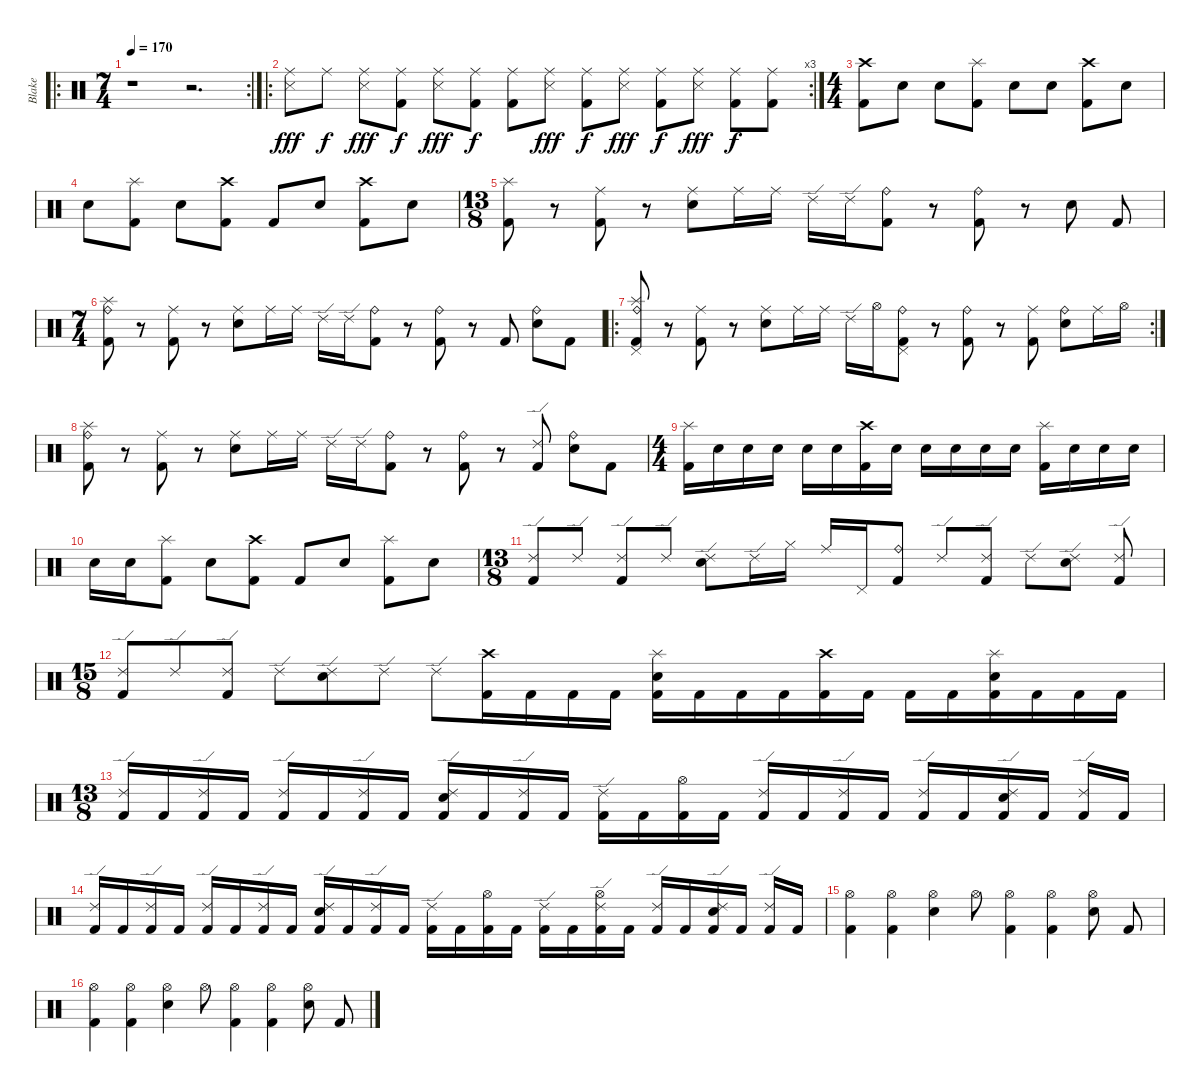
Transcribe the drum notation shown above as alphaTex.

\track ("Blake" "Blake") {instrument percussion}
\staff {score}
\articulation defaults
\ro
\rc 2
\ts (7 4)
\tempo 170
\clef neutral
\ks c
r.1{dy fff} r.2{d} |
\ro
\rc 3
("Ride (middle)" "Snare (side stick) 3").8 "Ride (middle)".8{dy f} ("Ride (middle)" "Snare (side stick) 3").8{dy fff} ("Ride (middle)" "Kick (hit) 2").8{dy f} ("Ride (middle)" "Snare (side stick) 3").8{dy fff} ("Ride (middle)" "Kick (hit) 2").8{dy f} ("Ride (middle)" "Kick (hit) 2").8 ("Ride (middle)" "Snare (side stick) 3").8{dy fff} ("Ride (middle)" "Kick (hit) 2").8{dy f} ("Ride (middle)" "Snare (side stick) 3").8{dy fff} ("Ride (middle)" "Kick (hit) 2").8{dy f} ("Ride (middle)" "Snare (side stick) 3").8{dy fff} ("Ride (middle)" "Kick (hit) 2").8{dy f} ("Ride (middle)" "Kick (hit) 2").8 |
\ts (4 4)
("Crash high (hit)" "Kick (hit) 2").8 "Snare (hit) 2".8 "Snare (hit) 2".8 ("Splash (hit)" "Kick (hit) 2").8 "Snare (hit) 2".8 "Snare (hit) 2".8 ("Crash high (hit)" "Kick (hit) 2").8 "Snare (hit) 2".8 |
"Snare (hit) 2".8 ("Splash (hit)" "Kick (hit) 2").8 "Snare (hit) 2".8 ("Crash high (hit)" "Kick (hit) 2").8 "Kick (hit) 2".8 "Snare (hit) 2".8 ("Crash high (hit)" "Kick (hit) 2").8 "Snare (hit) 2".8 |
\ts (13 8)
("Splash (hit)" "Kick (hit) 2").8 r.8 ("Ride (middle)" "Kick (hit) 2").8 r.8 ("Ride (middle)" "Snare (hit) 2").8 "Ride (middle)".16 "Ride (middle)".16 "Ride (edge) 2".16 "Ride (edge) 2".16 ("Ride (bell)" "Kick (hit) 2").8 r.8 ("Ride (bell)" "Kick (hit) 2").8 r.8 "Snare (hit) 2".8 "Kick (hit) 2".8 |
\ts (7 4)
("Splash (hit)" "Ride (bell)" "Kick (hit) 2").8 r.8 ("Ride (middle)" "Kick (hit) 2").8 r.8 ("Ride (middle)" "Snare (hit) 2").8 "Ride (middle)".16 "Ride (middle)".16 "Ride (edge) 2".16 "Ride (edge) 2".16 ("Ride (bell)" "Kick (hit) 2").8 r.8 ("Ride (bell)" "Kick (hit) 2").8 r.8 "Kick (hit) 2".8 ("Ride (bell)" "Snare (hit) 2").8 "Kick (hit) 2".8 |
\ro
\rc 2
("Splash (hit)" "Ride (bell)" "Pedal Hi-Hat (hit)" "Kick (hit) 2").8 r.8 ("Ride (middle)" "Kick (hit) 2").8 r.8 ("Ride (middle)" "Snare (hit) 2").8 "Ride (middle)".16 "Ride (middle)".16 "Ride (edge) 2".16 "Hi-Hat (open)".16 ("Ride (bell)" "Pedal Hi-Hat (hit)" "Kick (hit) 2").8 r.8 ("Ride (bell)" "Kick (hit) 2").8 r.8 ("Ride (middle)" "Kick (hit) 2").8 ("Ride (bell)" "Snare (hit) 2").8 "Ride (middle)".16 "Hi-Hat (open)".16 |
("Splash (hit)" "Ride (bell)" "Kick (hit) 2").8 r.8 ("Ride (middle)" "Kick (hit) 2").8 r.8 ("Ride (middle)" "Snare (hit) 2").8 "Ride (middle)".16 "Ride (middle)".16 "Ride (edge) 2".16 "Ride (edge) 2".16 ("Ride (bell)" "Kick (hit) 2").8 r.8 ("Ride (bell)" "Kick (hit) 2").8 r.8 ("Ride (edge) 2" "Kick (hit) 2").8 ("Ride (bell)" "Snare (hit) 2").8 "Kick (hit) 2".8 |
\ts (4 4)
("Splash (hit)" "Kick (hit) 2").16 "Snare (hit) 2".16 "Snare (hit) 2".16 "Snare (hit) 2".16 "Snare (hit) 2".16 "Snare (hit) 2".16 ("Crash high (hit)" "Kick (hit) 2").16 "Snare (hit) 2".16 "Snare (hit) 2".16 "Snare (hit) 2".16 "Snare (hit) 2".16 "Snare (hit) 2".16 ("Splash (hit)" "Kick (hit) 2").16 "Snare (hit) 2".16 "Snare (hit) 2".16 "Snare (hit) 2".16 |
"Snare (hit) 2".16 "Snare (hit) 2".16 ("Splash (hit)" "Kick (hit) 2").8 "Snare (hit) 2".8 ("Crash high (hit)" "Kick (hit) 2").8 "Kick (hit) 2".8 "Snare (hit) 2".8 ("Splash (hit)" "Kick (hit) 2").8 "Snare (hit) 2".8 |
\ts (13 8)
("Ride (edge) 2" "Kick (hit) 2").8 "Ride (edge) 2".8 ("Ride (edge) 2" "Kick (hit) 2").8 "Ride (edge) 2".8 ("Ride (edge) 2" "Snare (hit) 2").8 "Ride (edge) 2".16 "Hi-Hat (closed)".16 "Ride (middle)".16 "Pedal Hi-Hat (hit)".16 ("Ride (bell)" "Kick (hit) 2").8 "Ride (edge) 2".8 ("Ride (edge) 2" "Kick (hit) 2").8 "Ride (edge) 2".8 ("Ride (edge) 2" "Snare (hit) 2").8 ("Ride (edge) 2" "Kick (hit) 2").8 |
\ts (15 8)
("Ride (edge) 2" "Kick (hit) 2").8 "Ride (edge) 2".8 ("Ride (edge) 2" "Kick (hit) 2").8 "Ride (edge) 2".8 ("Ride (edge) 2" "Snare (hit) 2").8 "Ride (edge) 2".8 "Ride (edge) 2".8 ("Crash high (hit)" "Kick (hit) 2").16 "Kick (hit) 2".16 "Kick (hit) 2".16 "Kick (hit) 2".16 ("Splash (hit)" "Snare (hit) 2" "Kick (hit) 2").16 "Kick (hit) 2".16 "Kick (hit) 2".16 "Kick (hit) 2".16 ("Crash high (hit)" "Kick (hit) 2").16 "Kick (hit) 2".16 "Kick (hit) 2".16 "Kick (hit) 2".16 ("Splash (hit)" "Snare (hit) 2" "Kick (hit) 2").16 "Kick (hit) 2".16 "Kick (hit) 2".16 "Kick (hit) 2".16 |
\ts (13 8)
("Ride (edge) 2" "Kick (hit) 2").16 "Kick (hit) 2".16 ("Ride (edge) 2" "Kick (hit) 2").16 "Kick (hit) 2".16 ("Ride (edge) 2" "Kick (hit) 2").16 "Kick (hit) 2".16 ("Ride (edge) 2" "Kick (hit) 2").16 "Kick (hit) 2".16 ("Ride (edge) 2" "Snare (hit) 2" "Kick (hit) 2").16 "Kick (hit) 2".16 ("Ride (edge) 2" "Kick (hit) 2").16 "Kick (hit) 2".16 ("Ride (edge) 2" "Kick (hit) 2").16 "Kick (hit) 2".16 ("Hi-Hat (open)" "Kick (hit) 2").16 "Kick (hit) 2".16 ("Ride (edge) 2" "Kick (hit) 2").16 "Kick (hit) 2".16 ("Ride (edge) 2" "Kick (hit) 2").16 "Kick (hit) 2".16 ("Ride (edge) 2" "Kick (hit) 2").16 "Kick (hit) 2".16 ("Ride (edge) 2" "Snare (hit) 2" "Kick (hit) 2").16 "Kick (hit) 2".16 ("Ride (edge) 2" "Kick (hit) 2").16 "Kick (hit) 2".16 |
("Ride (edge) 2" "Kick (hit) 2").16 "Kick (hit) 2".16 ("Ride (edge) 2" "Kick (hit) 2").16 "Kick (hit) 2".16 ("Ride (edge) 2" "Kick (hit) 2").16 "Kick (hit) 2".16 ("Ride (edge) 2" "Kick (hit) 2").16 "Kick (hit) 2".16 ("Ride (edge) 2" "Snare (hit) 2" "Kick (hit) 2").16 "Kick (hit) 2".16 ("Ride (edge) 2" "Kick (hit) 2").16 "Kick (hit) 2".16 ("Ride (edge) 2" "Kick (hit) 2").16 "Kick (hit) 2".16 ("Hi-Hat (open)" "Kick (hit) 2").16 "Kick (hit) 2".16 ("Ride (edge) 2" "Kick (hit) 2").16 "Kick (hit) 2".16 ("Ride (edge) 2" "Hi-Hat (open)" "Kick (hit) 2").16 "Kick (hit) 2".16 ("Ride (edge) 2" "Kick (hit) 2").16 "Kick (hit) 2".16 ("Ride (edge) 2" "Snare (hit) 2" "Kick (hit) 2").16 "Kick (hit) 2".16 ("Ride (edge) 2" "Kick (hit) 2").16 "Kick (hit) 2".16 |
("Hi-Hat (open)" "Kick (hit) 2").4 ("Hi-Hat (open)" "Kick (hit) 2").4 ("Hi-Hat (open)" "Snare (hit) 2").4 "Hi-Hat (open)".8 ("Hi-Hat (open)" "Kick (hit) 2").4 ("Hi-Hat (open)" "Kick (hit) 2").4 ("Hi-Hat (open)" "Snare (hit) 2").8 "Kick (hit) 2".8 |
("Hi-Hat (open)" "Kick (hit) 2").4 ("Hi-Hat (open)" "Kick (hit) 2").4 ("Hi-Hat (open)" "Snare (hit) 2").4 "Hi-Hat (open)".8 ("Hi-Hat (open)" "Kick (hit) 2").4 ("Hi-Hat (open)" "Kick (hit) 2").4 ("Hi-Hat (open)" "Snare (hit) 2").8 "Kick (hit) 2".8
